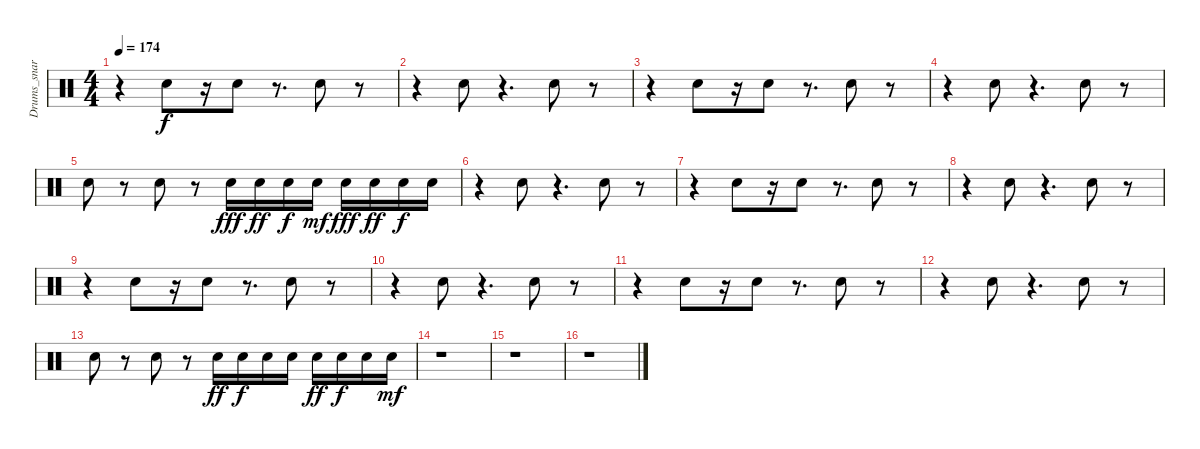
\track ("Drums_snare&tom" "Drums_snar") {instrument percussion}
\staff {score}
\articulation defaults
\ts (4 4)
\tempo 174
\clef neutral
\ks c
r.4{dy f} "Electric Snare (hit)".8 r.16 "Electric Snare (hit)".8 r.8{d} "Electric Snare (hit)".8 r.8 |
r.4 "Electric Snare (hit)".8 r.4{d} "Electric Snare (hit)".8 r.8 |
r.4 "Electric Snare (hit)".8 r.16 "Electric Snare (hit)".8 r.8{d} "Electric Snare (hit)".8 r.8 |
r.4 "Electric Snare (hit)".8 r.4{d} "Electric Snare (hit)".8 r.8 |
"Electric Snare (hit)".8 r.8 "Electric Snare (hit)".8 r.8 "Electric Snare (hit)".16{dy fff} "Electric Snare (hit)".16{dy ff} "Electric Snare (hit)".16{dy f} "Electric Snare (hit)".16{dy mf} "Electric Snare (hit)".16{dy fff} "Electric Snare (hit)".16{dy ff} "Electric Snare (hit)".16{dy f} "Electric Snare (hit)".16 |
r.4 "Electric Snare (hit)".8 r.4{d} "Electric Snare (hit)".8 r.8 |
r.4 "Electric Snare (hit)".8 r.16 "Electric Snare (hit)".8 r.8{d} "Electric Snare (hit)".8 r.8 |
r.4 "Electric Snare (hit)".8 r.4{d} "Electric Snare (hit)".8 r.8 |
r.4 "Electric Snare (hit)".8 r.16 "Electric Snare (hit)".8 r.8{d} "Electric Snare (hit)".8 r.8 |
r.4 "Electric Snare (hit)".8 r.4{d} "Electric Snare (hit)".8 r.8 |
r.4 "Electric Snare (hit)".8 r.16 "Electric Snare (hit)".8 r.8{d} "Electric Snare (hit)".8 r.8 |
r.4 "Electric Snare (hit)".8 r.4{d} "Electric Snare (hit)".8 r.8 |
"Electric Snare (hit)".8 r.8 "Electric Snare (hit)".8 r.8 "Electric Snare (hit)".16{dy ff} "Electric Snare (hit)".16{dy f} "Electric Snare (hit)".16 "Electric Snare (hit)".16 "Electric Snare (hit)".16{dy ff} "Electric Snare (hit)".16{dy f} "Electric Snare (hit)".16 "Electric Snare (hit)".16{dy mf} |
r.1 |
r.1 |
r.1
